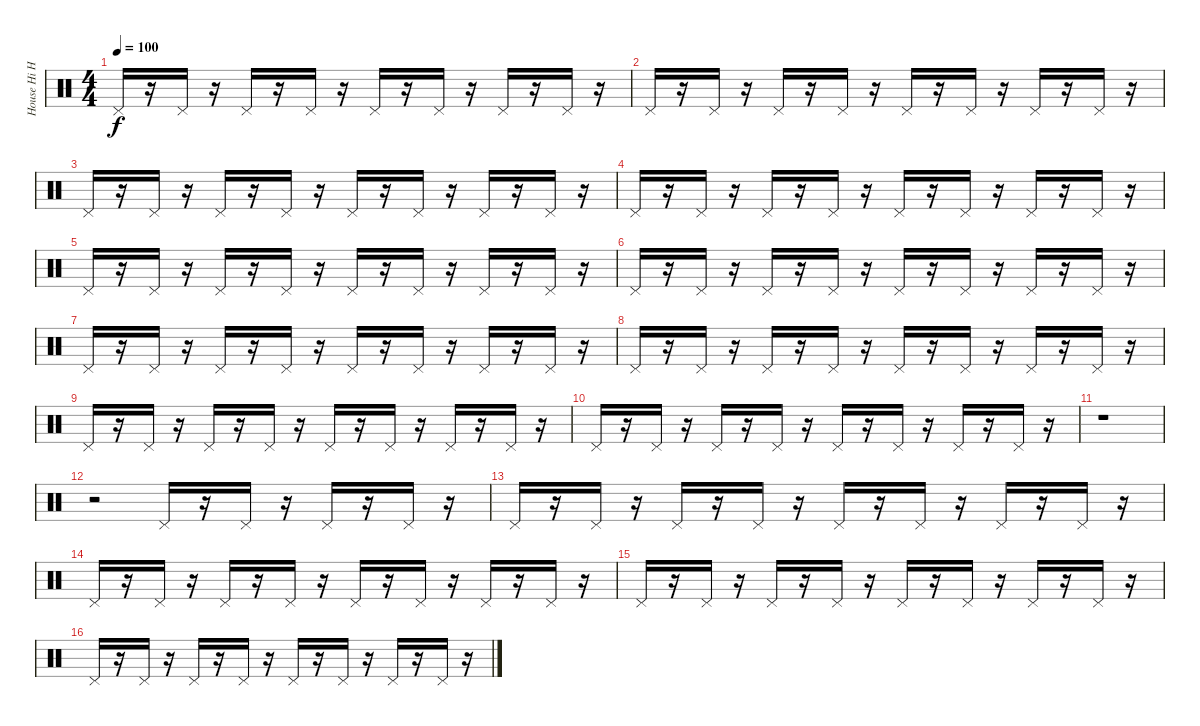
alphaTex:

\track ("House Hi Hat" "House Hi H") {instrument percussion}
\staff {score}
\articulation defaults
\ts (4 4)
\tempo 100
\clef neutral
\ks c "Pedal Hi-Hat (hit)".16{dy f}
r.16 "Pedal Hi-Hat (hit)".16 r.16 "Pedal Hi-Hat (hit)".16 r.16 "Pedal Hi-Hat (hit)".16 r.16 "Pedal Hi-Hat (hit)".16 r.16 "Pedal Hi-Hat (hit)".16 r.16 "Pedal Hi-Hat (hit)".16 r.16 "Pedal Hi-Hat (hit)".16 r.16 |
"Pedal Hi-Hat (hit)".16 r.16 "Pedal Hi-Hat (hit)".16 r.16 "Pedal Hi-Hat (hit)".16 r.16 "Pedal Hi-Hat (hit)".16 r.16 "Pedal Hi-Hat (hit)".16 r.16 "Pedal Hi-Hat (hit)".16 r.16 "Pedal Hi-Hat (hit)".16 r.16 "Pedal Hi-Hat (hit)".16 r.16 |
"Pedal Hi-Hat (hit)".16 r.16 "Pedal Hi-Hat (hit)".16 r.16 "Pedal Hi-Hat (hit)".16 r.16 "Pedal Hi-Hat (hit)".16 r.16 "Pedal Hi-Hat (hit)".16 r.16 "Pedal Hi-Hat (hit)".16 r.16 "Pedal Hi-Hat (hit)".16 r.16 "Pedal Hi-Hat (hit)".16 r.16 |
"Pedal Hi-Hat (hit)".16 r.16 "Pedal Hi-Hat (hit)".16 r.16 "Pedal Hi-Hat (hit)".16 r.16 "Pedal Hi-Hat (hit)".16 r.16 "Pedal Hi-Hat (hit)".16 r.16 "Pedal Hi-Hat (hit)".16 r.16 "Pedal Hi-Hat (hit)".16 r.16 "Pedal Hi-Hat (hit)".16 r.16 |
"Pedal Hi-Hat (hit)".16 r.16 "Pedal Hi-Hat (hit)".16 r.16 "Pedal Hi-Hat (hit)".16 r.16 "Pedal Hi-Hat (hit)".16 r.16 "Pedal Hi-Hat (hit)".16 r.16 "Pedal Hi-Hat (hit)".16 r.16 "Pedal Hi-Hat (hit)".16 r.16 "Pedal Hi-Hat (hit)".16 r.16 |
"Pedal Hi-Hat (hit)".16 r.16 "Pedal Hi-Hat (hit)".16 r.16 "Pedal Hi-Hat (hit)".16 r.16 "Pedal Hi-Hat (hit)".16 r.16 "Pedal Hi-Hat (hit)".16 r.16 "Pedal Hi-Hat (hit)".16 r.16 "Pedal Hi-Hat (hit)".16 r.16 "Pedal Hi-Hat (hit)".16 r.16 |
"Pedal Hi-Hat (hit)".16 r.16 "Pedal Hi-Hat (hit)".16 r.16 "Pedal Hi-Hat (hit)".16 r.16 "Pedal Hi-Hat (hit)".16 r.16 "Pedal Hi-Hat (hit)".16 r.16 "Pedal Hi-Hat (hit)".16 r.16 "Pedal Hi-Hat (hit)".16 r.16 "Pedal Hi-Hat (hit)".16 r.16 |
"Pedal Hi-Hat (hit)".16 r.16 "Pedal Hi-Hat (hit)".16 r.16 "Pedal Hi-Hat (hit)".16 r.16 "Pedal Hi-Hat (hit)".16 r.16 "Pedal Hi-Hat (hit)".16 r.16 "Pedal Hi-Hat (hit)".16 r.16 "Pedal Hi-Hat (hit)".16 r.16 "Pedal Hi-Hat (hit)".16 r.16 |
"Pedal Hi-Hat (hit)".16 r.16 "Pedal Hi-Hat (hit)".16 r.16 "Pedal Hi-Hat (hit)".16 r.16 "Pedal Hi-Hat (hit)".16 r.16 "Pedal Hi-Hat (hit)".16 r.16 "Pedal Hi-Hat (hit)".16 r.16 "Pedal Hi-Hat (hit)".16 r.16 "Pedal Hi-Hat (hit)".16 r.16 |
"Pedal Hi-Hat (hit)".16 r.16 "Pedal Hi-Hat (hit)".16 r.16 "Pedal Hi-Hat (hit)".16 r.16 "Pedal Hi-Hat (hit)".16 r.16 "Pedal Hi-Hat (hit)".16 r.16 "Pedal Hi-Hat (hit)".16 r.16 "Pedal Hi-Hat (hit)".16 r.16 "Pedal Hi-Hat (hit)".16 r.16 |
r.1 |
r.2 "Pedal Hi-Hat (hit)".16 r.16 "Pedal Hi-Hat (hit)".16 r.16 "Pedal Hi-Hat (hit)".16 r.16 "Pedal Hi-Hat (hit)".16 r.16 |
"Pedal Hi-Hat (hit)".16 r.16 "Pedal Hi-Hat (hit)".16 r.16 "Pedal Hi-Hat (hit)".16 r.16 "Pedal Hi-Hat (hit)".16 r.16 "Pedal Hi-Hat (hit)".16 r.16 "Pedal Hi-Hat (hit)".16 r.16 "Pedal Hi-Hat (hit)".16 r.16 "Pedal Hi-Hat (hit)".16 r.16 |
"Pedal Hi-Hat (hit)".16 r.16 "Pedal Hi-Hat (hit)".16 r.16 "Pedal Hi-Hat (hit)".16 r.16 "Pedal Hi-Hat (hit)".16 r.16 "Pedal Hi-Hat (hit)".16 r.16 "Pedal Hi-Hat (hit)".16 r.16 "Pedal Hi-Hat (hit)".16 r.16 "Pedal Hi-Hat (hit)".16 r.16 |
"Pedal Hi-Hat (hit)".16 r.16 "Pedal Hi-Hat (hit)".16 r.16 "Pedal Hi-Hat (hit)".16 r.16 "Pedal Hi-Hat (hit)".16 r.16 "Pedal Hi-Hat (hit)".16 r.16 "Pedal Hi-Hat (hit)".16 r.16 "Pedal Hi-Hat (hit)".16 r.16 "Pedal Hi-Hat (hit)".16 r.16 |
"Pedal Hi-Hat (hit)".16 r.16 "Pedal Hi-Hat (hit)".16 r.16 "Pedal Hi-Hat (hit)".16 r.16 "Pedal Hi-Hat (hit)".16 r.16 "Pedal Hi-Hat (hit)".16 r.16 "Pedal Hi-Hat (hit)".16 r.16 "Pedal Hi-Hat (hit)".16 r.16 "Pedal Hi-Hat (hit)".16 r.16
